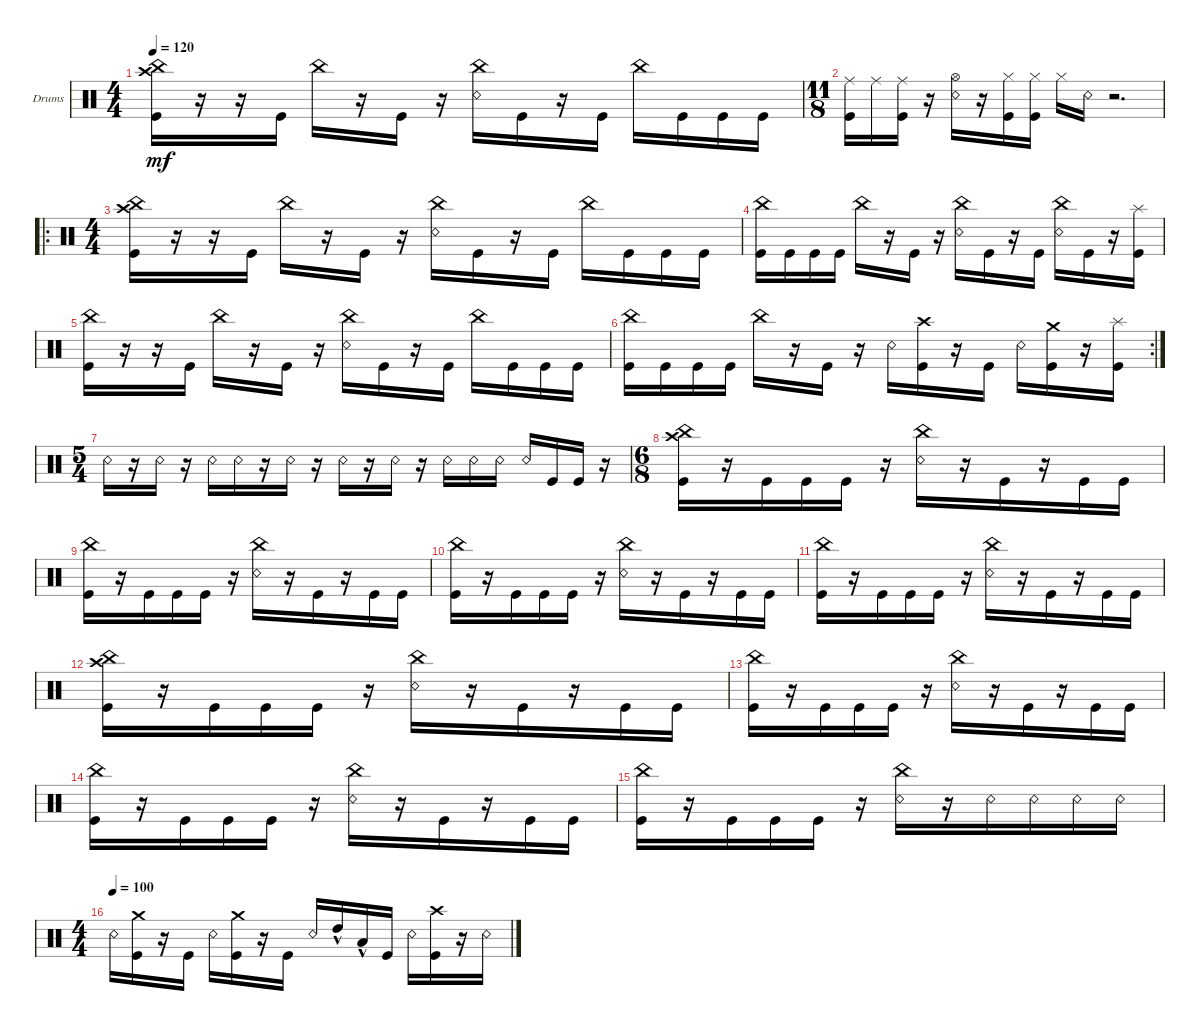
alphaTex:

\defaultSystemsLayout 4
\bracketExtendMode groupsimilarinstruments
\firstSystemTrackNameOrientation horizontal
\otherSystemsTrackNameOrientation horizontal
\track ("Drumkit" "Drums") {instrument percussion}
\staff {score}
\articulation defaults
\ts (4 4)
\tempo 120
\clef neutral
\ks c
("Kick (hit)" "China (hit)" "Crash high (hit)").16{dy mf} r.16 r.16 "Kick (hit)".16 "China (hit)".16 r.16 "Kick (hit)".16 r.16 ("China (hit)" "Snare (rim shot)").16 "Kick (hit)".16 r.16 "Kick (hit)".16 "China (hit)".16 "Kick (hit)".16 "Kick (hit)".16 "Kick (hit)".16 |
\ts (11 8)
("Kick (hit)" "Ride (middle)").16 "Ride (middle)".16 ("Kick (hit)" "Ride (middle)").16 r.16 ("Snare (rim shot)" "Hi-Hat (open)").16 r.16 ("Kick (hit)" "Hi-Hat (closed)").16 ("Hi-Hat (closed)" "Kick (hit)").16 "Hi-Hat (closed)".16 "Snare (rim shot)".16 r.2{d} |
\ro
\ts (4 4)
("Kick (hit)" "China (hit)" "Crash high (hit)").16 r.16 r.16 "Kick (hit)".16 "China (hit)".16 r.16 "Kick (hit)".16 r.16 ("Snare (rim shot)" "China (hit)").16 "Kick (hit)".16 r.16 "Kick (hit)".16 "China (hit)".16 "Kick (hit)".16 "Kick (hit)".16 "Kick (hit)".16 |
("Kick (hit)" "China (hit)").16 "Kick (hit)".16 "Kick (hit)".16 "Kick (hit)".16 "China (hit)".16 r.16 "Kick (hit)".16 r.16 ("Snare (rim shot)" "China (hit)").16 "Kick (hit)".16 r.16 "Kick (hit)".16 ("Snare (rim shot)" "China (hit)").16 "Kick (hit)".16 r.16 ("Kick (hit)" "Splash (hit)").16 |
("Kick (hit)" "China (hit)").16 r.16 r.16 "Kick (hit)".16 "China (hit)".16 r.16 "Kick (hit)".16 r.16 ("Snare (rim shot)" "China (hit)").16 "Kick (hit)".16 r.16 "Kick (hit)".16 "China (hit)".16 "Kick (hit)".16 "Kick (hit)".16 "Kick (hit)".16 |
\rc 2
("Kick (hit)" "China (hit)").16 "Kick (hit)".16 "Kick (hit)".16 "Kick (hit)".16 "China (hit)".16 r.16 "Kick (hit)".16 r.16 "Snare (rim shot)".16 ("Kick (hit)" "Crash high (hit)").16 r.16 "Kick (hit)".16 "Snare (rim shot)".16 ("Kick (hit)" "Crash medium (hit)").16 r.16 ("Kick (hit)" "Splash (hit)").16 |
\ts (5 4)
"Snare (rim shot)".16 r.16 "Snare (rim shot)".16 r.16 "Snare (rim shot)".16 "Snare (rim shot)".16 r.16 "Snare (rim shot)".16 r.16 "Snare (rim shot)".16 r.16 "Snare (rim shot)".16 r.16 "Snare (rim shot)".16 "Snare (rim shot)".16 "Snare (rim shot)".16 "Snare (rim shot)".16 "Kick (hit)".16 "Kick (hit)".16 r.16 |
\ts (6 8)
("Kick (hit)" "China (hit)" "Crash high (hit)").16 r.16 "Kick (hit)".16 "Kick (hit)".16 "Kick (hit)".16 r.16 ("Snare (rim shot)" "China (hit)").16 r.16 "Kick (hit)".16 r.16 "Kick (hit)".16 "Kick (hit)".16 |
("Kick (hit)" "China (hit)").16 r.16 "Kick (hit)".16 "Kick (hit)".16 "Kick (hit)".16 r.16 ("Snare (rim shot)" "China (hit)").16 r.16 "Kick (hit)".16 r.16 "Kick (hit)".16 "Kick (hit)".16 |
("Kick (hit)" "China (hit)").16 r.16 "Kick (hit)".16 "Kick (hit)".16 "Kick (hit)".16 r.16 ("Snare (rim shot)" "China (hit)").16 r.16 "Kick (hit)".16 r.16 "Kick (hit)".16 "Kick (hit)".16 |
("Kick (hit)" "China (hit)").16 r.16 "Kick (hit)".16 "Kick (hit)".16 "Kick (hit)".16 r.16 ("Snare (rim shot)" "China (hit)").16 r.16 "Kick (hit)".16 r.16 "Kick (hit)".16 "Kick (hit)".16 |
("Kick (hit)" "China (hit)" "Crash high (hit)").16 r.16 "Kick (hit)".16 "Kick (hit)".16 "Kick (hit)".16 r.16 ("Snare (rim shot)" "China (hit)").16 r.16 "Kick (hit)".16 r.16 "Kick (hit)".16 "Kick (hit)".16 |
("Kick (hit)" "China (hit)").16 r.16 "Kick (hit)".16 "Kick (hit)".16 "Kick (hit)".16 r.16 ("Snare (rim shot)" "China (hit)").16 r.16 "Kick (hit)".16 r.16 "Kick (hit)".16 "Kick (hit)".16 |
("Kick (hit)" "China (hit)").16 r.16 "Kick (hit)".16 "Kick (hit)".16 "Kick (hit)".16 r.16 ("Snare (rim shot)" "China (hit)").16 r.16 "Kick (hit)".16 r.16 "Kick (hit)".16 "Kick (hit)".16 |
("Kick (hit)" "China (hit)").16 r.16 "Kick (hit)".16 "Kick (hit)".16 "Kick (hit)".16 r.16 ("Snare (rim shot)" "China (hit)").16 r.16 "Snare (rim shot)".16 "Snare (rim shot)".16 "Snare (rim shot)".16 "Snare (rim shot)".16 |
\ts (4 4)
\tempo (100)
"Snare (rim shot)".16 ("Kick (hit)" "Crash medium (hit)").16 r.16 "Kick (hit)".16 "Snare (rim shot)".16 ("Kick (hit)" "Crash medium (hit)").16 r.16 "Kick (hit)".16 "Snare (rim shot)".16 "High Tom (hit)"{hac}.16 "Low Tom (hit)"{hac}.16 "Kick (hit)".16 "Snare (rim shot)".16 ("Kick (hit)" "Crash high (hit)").16 r.16 "Snare (rim shot)".16
